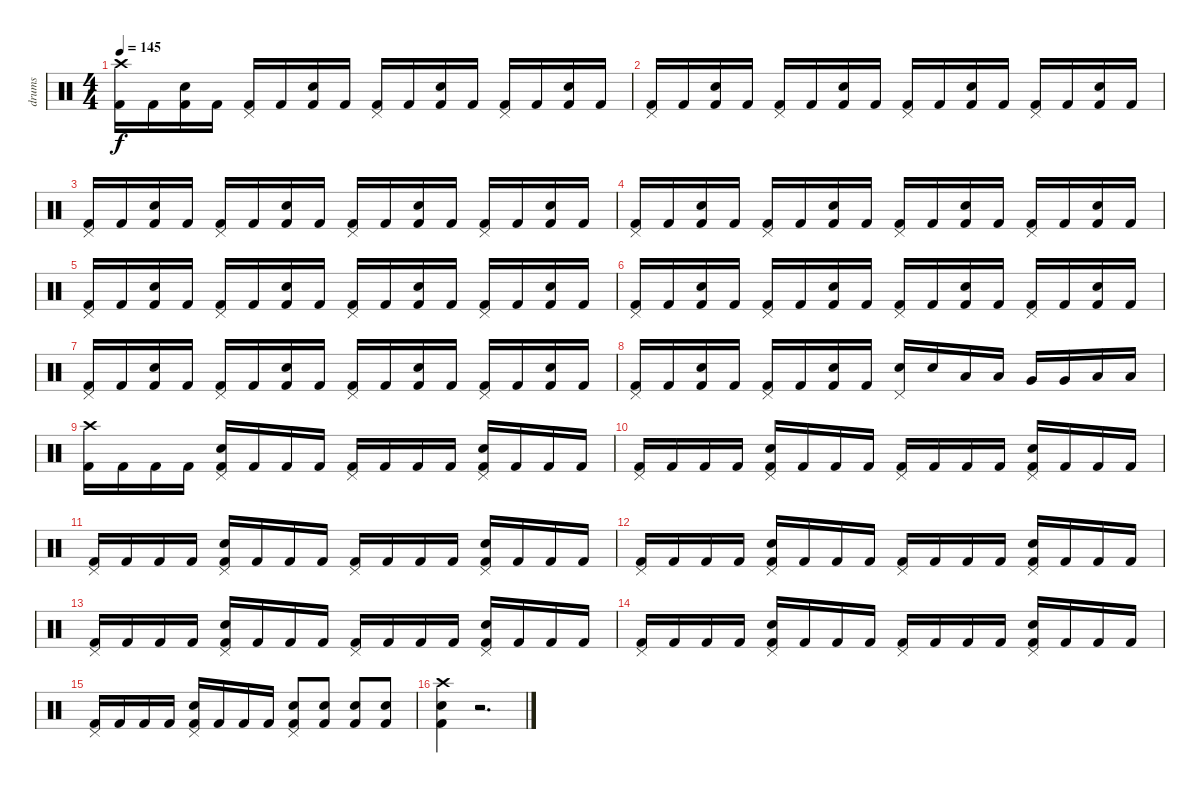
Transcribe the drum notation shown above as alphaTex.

\track ("drums" "drums") {instrument percussion}
\staff {score}
\articulation defaults
\ts (4 4)
\tempo 145
\clef neutral
\ks c
("Crash high (hit)" "Kick (hit) 2").16{dy f} "Kick (hit) 2".16 ("Electric Snare (hit)" "Kick (hit) 2").16 "Kick (hit) 2".16 ("Pedal Hi-Hat (hit)" "Kick (hit) 2").16 "Kick (hit) 2".16 ("Electric Snare (hit)" "Kick (hit) 2").16 "Kick (hit) 2".16 ("Pedal Hi-Hat (hit)" "Kick (hit) 2").16 "Kick (hit) 2".16 ("Electric Snare (hit)" "Kick (hit) 2").16 "Kick (hit) 2".16 ("Pedal Hi-Hat (hit)" "Kick (hit) 2").16 "Kick (hit) 2".16 ("Electric Snare (hit)" "Kick (hit) 2").16 "Kick (hit) 2".16 |
("Pedal Hi-Hat (hit)" "Kick (hit) 2").16 "Kick (hit) 2".16 ("Electric Snare (hit)" "Kick (hit) 2").16 "Kick (hit) 2".16 ("Pedal Hi-Hat (hit)" "Kick (hit) 2").16 "Kick (hit) 2".16 ("Electric Snare (hit)" "Kick (hit) 2").16 "Kick (hit) 2".16 ("Pedal Hi-Hat (hit)" "Kick (hit) 2").16 "Kick (hit) 2".16 ("Electric Snare (hit)" "Kick (hit) 2").16 "Kick (hit) 2".16 ("Pedal Hi-Hat (hit)" "Kick (hit) 2").16 "Kick (hit) 2".16 ("Electric Snare (hit)" "Kick (hit) 2").16 "Kick (hit) 2".16 |
("Pedal Hi-Hat (hit)" "Kick (hit) 2").16 "Kick (hit) 2".16 ("Electric Snare (hit)" "Kick (hit) 2").16 "Kick (hit) 2".16 ("Pedal Hi-Hat (hit)" "Kick (hit) 2").16 "Kick (hit) 2".16 ("Electric Snare (hit)" "Kick (hit) 2").16 "Kick (hit) 2".16 ("Pedal Hi-Hat (hit)" "Kick (hit) 2").16 "Kick (hit) 2".16 ("Electric Snare (hit)" "Kick (hit) 2").16 "Kick (hit) 2".16 ("Pedal Hi-Hat (hit)" "Kick (hit) 2").16 "Kick (hit) 2".16 ("Electric Snare (hit)" "Kick (hit) 2").16 "Kick (hit) 2".16 |
("Pedal Hi-Hat (hit)" "Kick (hit) 2").16 "Kick (hit) 2".16 ("Electric Snare (hit)" "Kick (hit) 2").16 "Kick (hit) 2".16 ("Pedal Hi-Hat (hit)" "Kick (hit) 2").16 "Kick (hit) 2".16 ("Electric Snare (hit)" "Kick (hit) 2").16 "Kick (hit) 2".16 ("Pedal Hi-Hat (hit)" "Kick (hit) 2").16 "Kick (hit) 2".16 ("Electric Snare (hit)" "Kick (hit) 2").16 "Kick (hit) 2".16 ("Pedal Hi-Hat (hit)" "Kick (hit) 2").16 "Kick (hit) 2".16 ("Electric Snare (hit)" "Kick (hit) 2").16 "Kick (hit) 2".16 |
("Pedal Hi-Hat (hit)" "Kick (hit) 2").16 "Kick (hit) 2".16 ("Electric Snare (hit)" "Kick (hit) 2").16 "Kick (hit) 2".16 ("Pedal Hi-Hat (hit)" "Kick (hit) 2").16 "Kick (hit) 2".16 ("Electric Snare (hit)" "Kick (hit) 2").16 "Kick (hit) 2".16 ("Pedal Hi-Hat (hit)" "Kick (hit) 2").16 "Kick (hit) 2".16 ("Electric Snare (hit)" "Kick (hit) 2").16 "Kick (hit) 2".16 ("Pedal Hi-Hat (hit)" "Kick (hit) 2").16 "Kick (hit) 2".16 ("Electric Snare (hit)" "Kick (hit) 2").16 "Kick (hit) 2".16 |
("Pedal Hi-Hat (hit)" "Kick (hit) 2").16 "Kick (hit) 2".16 ("Electric Snare (hit)" "Kick (hit) 2").16 "Kick (hit) 2".16 ("Pedal Hi-Hat (hit)" "Kick (hit) 2").16 "Kick (hit) 2".16 ("Electric Snare (hit)" "Kick (hit) 2").16 "Kick (hit) 2".16 ("Pedal Hi-Hat (hit)" "Kick (hit) 2").16 "Kick (hit) 2".16 ("Electric Snare (hit)" "Kick (hit) 2").16 "Kick (hit) 2".16 ("Pedal Hi-Hat (hit)" "Kick (hit) 2").16 "Kick (hit) 2".16 ("Electric Snare (hit)" "Kick (hit) 2").16 "Kick (hit) 2".16 |
("Pedal Hi-Hat (hit)" "Kick (hit) 2").16 "Kick (hit) 2".16 ("Electric Snare (hit)" "Kick (hit) 2").16 "Kick (hit) 2".16 ("Pedal Hi-Hat (hit)" "Kick (hit) 2").16 "Kick (hit) 2".16 ("Electric Snare (hit)" "Kick (hit) 2").16 "Kick (hit) 2".16 ("Pedal Hi-Hat (hit)" "Kick (hit) 2").16 "Kick (hit) 2".16 ("Electric Snare (hit)" "Kick (hit) 2").16 "Kick (hit) 2".16 ("Pedal Hi-Hat (hit)" "Kick (hit) 2").16 "Kick (hit) 2".16 ("Electric Snare (hit)" "Kick (hit) 2").16 "Kick (hit) 2".16 |
("Pedal Hi-Hat (hit)" "Kick (hit) 2").16 "Kick (hit) 2".16 ("Electric Snare (hit)" "Kick (hit) 2").16 "Kick (hit) 2".16 ("Pedal Hi-Hat (hit)" "Kick (hit) 2").16 "Kick (hit) 2".16 ("Electric Snare (hit)" "Kick (hit) 2").16 "Kick (hit) 2".16 ("Pedal Hi-Hat (hit)" "Snare (hit) 2").16 "Snare (hit) 2".16 "Low Tom (hit)".16 "Low Tom (hit)".16 "Very Low Tom (hit)".16 "Very Low Tom (hit)".16 "Low Floor Tom (hit)".16 "Low Floor Tom (hit)".16 |
("Crash high (hit)" "Kick (hit) 2").16 "Kick (hit) 2".16 "Kick (hit) 2".16 "Kick (hit) 2".16 ("Pedal Hi-Hat (hit)" "Electric Snare (hit)" "Kick (hit) 2").16 "Kick (hit) 2".16 "Kick (hit) 2".16 "Kick (hit) 2".16 ("Pedal Hi-Hat (hit)" "Kick (hit) 2").16 "Kick (hit) 2".16 "Kick (hit) 2".16 "Kick (hit) 2".16 ("Pedal Hi-Hat (hit)" "Electric Snare (hit)" "Kick (hit) 2").16 "Kick (hit) 2".16 "Kick (hit) 2".16 "Kick (hit) 2".16 |
("Pedal Hi-Hat (hit)" "Kick (hit) 2").16 "Kick (hit) 2".16 "Kick (hit) 2".16 "Kick (hit) 2".16 ("Pedal Hi-Hat (hit)" "Electric Snare (hit)" "Kick (hit) 2").16 "Kick (hit) 2".16 "Kick (hit) 2".16 "Kick (hit) 2".16 ("Pedal Hi-Hat (hit)" "Kick (hit) 2").16 "Kick (hit) 2".16 "Kick (hit) 2".16 "Kick (hit) 2".16 ("Pedal Hi-Hat (hit)" "Electric Snare (hit)" "Kick (hit) 2").16 "Kick (hit) 2".16 "Kick (hit) 2".16 "Kick (hit) 2".16 |
("Pedal Hi-Hat (hit)" "Kick (hit) 2").16 "Kick (hit) 2".16 "Kick (hit) 2".16 "Kick (hit) 2".16 ("Pedal Hi-Hat (hit)" "Electric Snare (hit)" "Kick (hit) 2").16 "Kick (hit) 2".16 "Kick (hit) 2".16 "Kick (hit) 2".16 ("Pedal Hi-Hat (hit)" "Kick (hit) 2").16 "Kick (hit) 2".16 "Kick (hit) 2".16 "Kick (hit) 2".16 ("Pedal Hi-Hat (hit)" "Electric Snare (hit)" "Kick (hit) 2").16 "Kick (hit) 2".16 "Kick (hit) 2".16 "Kick (hit) 2".16 |
("Pedal Hi-Hat (hit)" "Kick (hit) 2").16 "Kick (hit) 2".16 "Kick (hit) 2".16 "Kick (hit) 2".16 ("Pedal Hi-Hat (hit)" "Electric Snare (hit)" "Kick (hit) 2").16 "Kick (hit) 2".16 "Kick (hit) 2".16 "Kick (hit) 2".16 ("Pedal Hi-Hat (hit)" "Kick (hit) 2").16 "Kick (hit) 2".16 "Kick (hit) 2".16 "Kick (hit) 2".16 ("Pedal Hi-Hat (hit)" "Electric Snare (hit)" "Kick (hit) 2").16 "Kick (hit) 2".16 "Kick (hit) 2".16 "Kick (hit) 2".16 |
("Pedal Hi-Hat (hit)" "Kick (hit) 2").16 "Kick (hit) 2".16 "Kick (hit) 2".16 "Kick (hit) 2".16 ("Pedal Hi-Hat (hit)" "Electric Snare (hit)" "Kick (hit) 2").16 "Kick (hit) 2".16 "Kick (hit) 2".16 "Kick (hit) 2".16 ("Pedal Hi-Hat (hit)" "Kick (hit) 2").16 "Kick (hit) 2".16 "Kick (hit) 2".16 "Kick (hit) 2".16 ("Pedal Hi-Hat (hit)" "Electric Snare (hit)" "Kick (hit) 2").16 "Kick (hit) 2".16 "Kick (hit) 2".16 "Kick (hit) 2".16 |
("Pedal Hi-Hat (hit)" "Kick (hit) 2").16 "Kick (hit) 2".16 "Kick (hit) 2".16 "Kick (hit) 2".16 ("Pedal Hi-Hat (hit)" "Electric Snare (hit)" "Kick (hit) 2").16 "Kick (hit) 2".16 "Kick (hit) 2".16 "Kick (hit) 2".16 ("Pedal Hi-Hat (hit)" "Kick (hit) 2").16 "Kick (hit) 2".16 "Kick (hit) 2".16 "Kick (hit) 2".16 ("Pedal Hi-Hat (hit)" "Electric Snare (hit)" "Kick (hit) 2").16 "Kick (hit) 2".16 "Kick (hit) 2".16 "Kick (hit) 2".16 |
("Pedal Hi-Hat (hit)" "Kick (hit) 2").16 "Kick (hit) 2".16 "Kick (hit) 2".16 "Kick (hit) 2".16 ("Pedal Hi-Hat (hit)" "Electric Snare (hit)" "Kick (hit) 2").16 "Kick (hit) 2".16 "Kick (hit) 2".16 "Kick (hit) 2".16 ("Pedal Hi-Hat (hit)" "Electric Snare (hit)" "Kick (hit) 2").8 ("Electric Snare (hit)" "Kick (hit) 2").8 ("Electric Snare (hit)" "Kick (hit) 2").8 ("Electric Snare (hit)" "Kick (hit) 2").8 |
("Crash high (hit)" "Electric Snare (hit)" "Kick (hit) 2").4 r.2{d}
